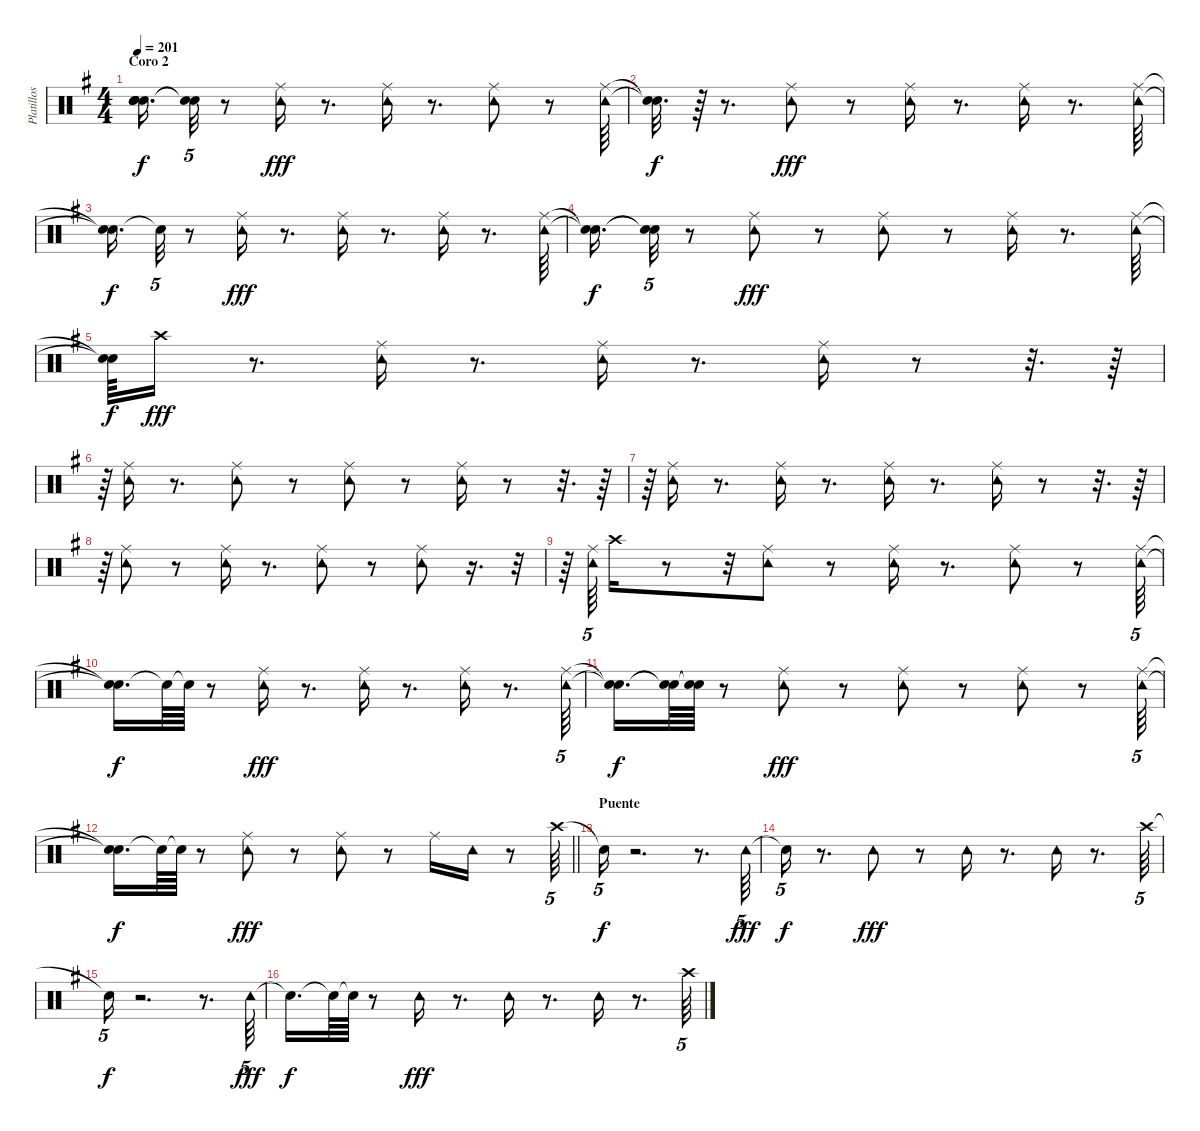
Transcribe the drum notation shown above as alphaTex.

\track ("Platillos y pandero" "Platillos ") {instrument percussion}
\staff {score}
\articulation defaults
\ts (4 4)
\section ("" "Coro 2")
\tempo 201
\clef neutral
\ks g
("Snare (hit)"{t} "Snare (hit)"{t} "Snare (hit)"{t} "Snare (hit)"{t}).16{d dy f} ("Snare (hit)"{t} "Snare (hit)"{t}).32{tu (5 4)} r.8 ("Tambourine (hit)" "Ride (middle)").16{dy fff} r.8{d} ("Tambourine (hit)" "Ride (middle)").16 r.8{d} ("Tambourine (hit)" "Ride (middle)").8 r.8 ("Tambourine (hit)" "Ride (middle)").64 |
("Snare (hit)"{t} "Snare (hit)"{t}).32{d dy f} r.64 r.8{d} ("Tambourine (hit)" "Ride (middle)").8{dy fff} r.8 ("Ride (middle)" "Tambourine (hit)").16 r.8{d} ("Tambourine (hit)" "Ride (middle)").16 r.8{d} ("Ride (middle)" "Tambourine (hit)").64 |
("Snare (hit)"{t} "Snare (hit)"{t}).16{d dy f} "Snare (hit)"{t}.32{tu (5 4)} r.8 ("Ride (middle)" "Tambourine (hit)").16{dy fff} r.8{d} ("Ride (middle)" "Tambourine (hit)").16 r.8{d} ("Ride (middle)" "Tambourine (hit)").16 r.8{d} ("Tambourine (hit)" "Ride (middle)").64 |
("Snare (hit)"{t} "Snare (hit)"{t}).16{d dy f} ("Snare (hit)"{t} "Snare (hit)"{t}).32{tu (5 4)} r.8 ("Tambourine (hit)" "Ride (middle)").8{dy fff} r.8 ("Tambourine (hit)" "Ride (middle)").8 r.8 ("Ride (middle)" "Tambourine (hit)").16 r.8{d} ("Tambourine (hit)" "Ride (middle)").64 |
("Snare (hit)"{t} "Snare (hit)"{t}).64{dy f} "Crash high (hit)".16{dy fff} r.8{d} ("Tambourine (hit)" "Ride (middle)").16 r.8{d} ("Ride (middle)" "Tambourine (hit)").16 r.8{d} ("Tambourine (hit)" "Ride (middle)").16 r.8 r.32{d} r.64 |
r.64 ("Ride (middle)" "Tambourine (hit)").16 r.8{d} ("Ride (middle)" "Tambourine (hit)").8 r.8 ("Ride (middle)" "Tambourine (hit)").8 r.8 ("Ride (middle)" "Tambourine (hit)").16 r.8 r.32{d} r.64 |
r.64 ("Ride (middle)" "Tambourine (hit)").16 r.8{d} ("Tambourine (hit)" "Ride (middle)").16 r.8{d} ("Tambourine (hit)" "Ride (middle)").16 r.8{d} ("Ride (middle)" "Tambourine (hit)").16 r.8 r.32{d} r.64 |
r.64 ("Ride (middle)" "Tambourine (hit)").8 r.8 ("Ride (middle)" "Tambourine (hit)").16 r.8{d} ("Ride (middle)" "Tambourine (hit)").8 r.8 ("Tambourine (hit)" "Ride (middle)").8 r.16{d} r.32{tu (5 4)} |
r.64 ("Tambourine (hit)" "Ride (middle)").64{tu (5 4)} "Crash high (hit)".16 r.8 r.32 ("Tambourine (hit)" "Ride (middle)").8 r.8 ("Tambourine (hit)" "Ride (middle)").16 r.8{d} ("Ride (middle)" "Tambourine (hit)").8 r.8 ("Ride (middle)" "Tambourine (hit)").64{tu (5 4)} |
("Snare (hit)"{t} "Snare (hit)"{t}).16{d dy f} "Snare (hit)"{t}.64 "Snare (hit)"{t}.64 r.8 ("Ride (middle)" "Tambourine (hit)").16{dy fff} r.8{d} ("Ride (middle)" "Tambourine (hit)").16 r.8{d} ("Ride (middle)" "Tambourine (hit)").16 r.8{d} ("Tambourine (hit)" "Ride (middle)").64{tu (5 4)} |
("Snare (hit)"{t} "Snare (hit)"{t}).16{d dy f} ("Snare (hit)"{t} "Snare (hit)"{t}).64 ("Snare (hit)"{t} "Snare (hit)"{t}).64 r.8 ("Ride (middle)" "Tambourine (hit)").8{dy fff} r.8 ("Ride (middle)" "Tambourine (hit)").8 r.8 ("Tambourine (hit)" "Ride (middle)").8 r.8 ("Tambourine (hit)" "Ride (middle)").64{tu (5 4)} |
\barLineRight lightlight
("Snare (hit)"{t} "Snare (hit)"{t}).16{d dy f} "Snare (hit)"{t}.64 "Snare (hit)"{t}.64 r.8 ("Tambourine (hit)" "Ride (middle)").8{dy fff} r.8 ("Ride (middle)" "Tambourine (hit)").8 r.8 "Ride (middle)".16 "Tambourine (hit)".16 r.8 "Crash high (hit)".64{tu (5 4)} |
\section ("" "Puente")
"Snare (hit)"{t}.16{tu (5 4) dy f} r.2{d} r.8{d} "Tambourine (hit)".64{tu (5 4) dy fff} |
"Snare (hit)"{t}.16{tu (5 4) dy f} r.8{d} "Tambourine (hit)".8{dy fff} r.8 "Tambourine (hit)".16 r.8{d} "Tambourine (hit)".16 r.8{d} "Crash high (hit)".64{tu (5 4)} |
"Snare (hit)"{t}.16{tu (5 4) dy f} r.2{d} r.8{d} "Tambourine (hit)".64{tu (5 4) dy fff} |
"Snare (hit)"{t}.16{d dy f} "Snare (hit)"{t}.64 "Snare (hit)"{t}.64 r.8 "Tambourine (hit)".16{dy fff} r.8{d} "Tambourine (hit)".16 r.8{d} "Tambourine (hit)".16 r.8{d} "Crash high (hit)".64{tu (5 4)}
